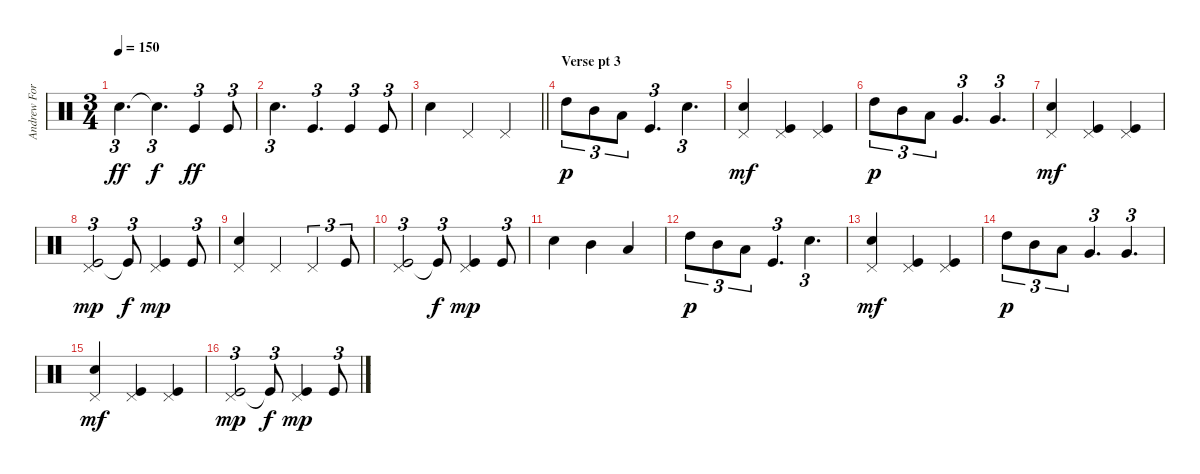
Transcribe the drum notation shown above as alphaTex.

\track ("Andrew Forsman" "Andrew For") {instrument percussion}
\staff {score}
\articulation defaults
\ts (3 4)
\tempo 150
\clef neutral
\ks c "Electric Snare (hit)".4{d tu (3 2) dy ff} "Snare (hit)"{t}.4{d tu (3 2) dy f} "Kick (hit)".4{tu (3 2) dy ff} "Kick (hit)".8{tu (3 2)}
|
"Electric Snare (hit)".4{d tu (3 2)} "Kick (hit)".4{d tu (3 2)} "Kick (hit)".4{tu (3 2)} "Kick (hit)".8{tu (3 2)} |
\barLineRight lightlight "Electric Snare (hit)".4 "Pedal Hi-Hat (hit)".4 "Pedal Hi-Hat (hit)".4
|
\section ("" "Verse pt 3")
"High Tom (hit)".8{tu (3 2) dy p} "Mid Tom (hit)".8{tu (3 2)} "Low Tom (hit)".8{tu (3 2)} "Kick (hit)".4{d tu (3 2)} "Electric Snare (hit)".4{d tu (3 2)} |
("Pedal Hi-Hat (hit)" "Electric Snare (hit)").4{dy mf} ("Pedal Hi-Hat (hit)" "Kick (hit)").4 ("Pedal Hi-Hat (hit)" "Kick (hit)").4 |
"High Tom (hit)".8{tu (3 2) dy p} "Mid Tom (hit)".8{tu (3 2)} "Low Tom (hit)".8{tu (3 2)} "Very Low Tom (hit)".4{d tu (3 2)} "Very Low Tom (hit)".4{d tu (3 2)} |
("Pedal Hi-Hat (hit)" "Electric Snare (hit)").4{dy mf} ("Pedal Hi-Hat (hit)" "Kick (hit)").4 ("Pedal Hi-Hat (hit)" "Kick (hit)").4 |
("Pedal Hi-Hat (hit)" "Kick (hit)").2{tu (3 2) dy mp} "Kick (hit)"{t}.8{tu (3 2) dy f} ("Pedal Hi-Hat (hit)" "Kick (hit)").4{dy mp} "Kick (hit)".8{tu (3 2)} |
("Pedal Hi-Hat (hit)" "Electric Snare (hit)").4 "Pedal Hi-Hat (hit)".4 "Pedal Hi-Hat (hit)".4{tu (3 2)} "Kick (hit)".8{tu (3 2)} |
("Pedal Hi-Hat (hit)" "Kick (hit)").2{tu (3 2)} "Kick (hit)"{t}.8{tu (3 2) dy f} ("Pedal Hi-Hat (hit)" "Kick (hit)").4{dy mp} "Kick (hit)".8{tu (3 2)} |
"Electric Snare (hit)".4 "Mid Tom (hit)".4 "Low Tom (hit)".4 |
"High Tom (hit)".8{tu (3 2) dy p} "Mid Tom (hit)".8{tu (3 2)} "Low Tom (hit)".8{tu (3 2)} "Kick (hit)".4{d tu (3 2)} "Electric Snare (hit)".4{d tu (3 2)} |
("Pedal Hi-Hat (hit)" "Electric Snare (hit)").4{dy mf} ("Pedal Hi-Hat (hit)" "Kick (hit)").4 ("Pedal Hi-Hat (hit)" "Kick (hit)").4 |
"High Tom (hit)".8{tu (3 2) dy p} "Mid Tom (hit)".8{tu (3 2)} "Low Tom (hit)".8{tu (3 2)} "Very Low Tom (hit)".4{d tu (3 2)} "Very Low Tom (hit)".4{d tu (3 2)} |
("Pedal Hi-Hat (hit)" "Electric Snare (hit)").4{dy mf} ("Pedal Hi-Hat (hit)" "Kick (hit)").4 ("Pedal Hi-Hat (hit)" "Kick (hit)").4 |
("Pedal Hi-Hat (hit)" "Kick (hit)").2{tu (3 2) dy mp} "Kick (hit)"{t}.8{tu (3 2) dy f} ("Pedal Hi-Hat (hit)" "Kick (hit)").4{dy mp} "Kick (hit)".8{tu (3 2)}
